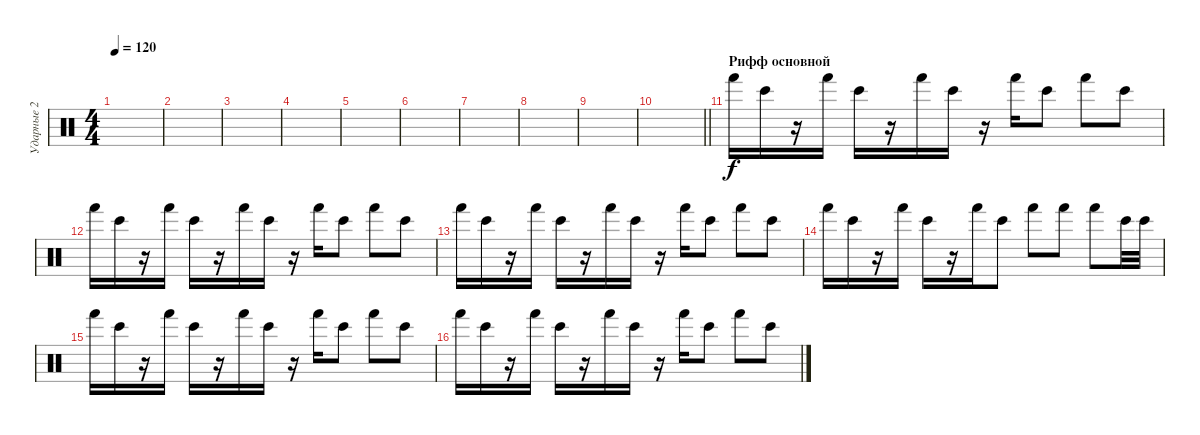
\track ("Ударные 2" "Ударные 2") {instrument percussion}
\staff {score}
\articulation defaults
\ts (4 4)
\tempo 120
\clef neutral
\ks c
|
|
|
|
|
|
|
|
|
\barLineRight lightlight
|
\section ("" "Рифф основной")
"Hand (hit)".16 "Bongo High (hit)".16 r.16 "Hand (hit)".16 "Bongo High (hit)".16 r.16 "Hand (hit)".16 "Bongo High (hit)".16 r.16 "Hand (hit)".16 "Bongo High (hit)".8 "Hand (hit)".8 "Bongo High (hit)".8 |
"Hand (hit)".16 "Bongo High (hit)".16 r.16 "Hand (hit)".16 "Bongo High (hit)".16 r.16 "Hand (hit)".16 "Bongo High (hit)".16 r.16 "Hand (hit)".16 "Bongo High (hit)".8 "Hand (hit)".8 "Bongo High (hit)".8 |
"Hand (hit)".16 "Bongo High (hit)".16 r.16 "Hand (hit)".16 "Bongo High (hit)".16 r.16 "Hand (hit)".16 "Bongo High (hit)".16 r.16 "Hand (hit)".16 "Bongo High (hit)".8 "Hand (hit)".8 "Bongo High (hit)".8 |
"Hand (hit)".16 "Bongo High (hit)".16 r.16 "Hand (hit)".16 "Bongo High (hit)".16 r.16 "Hand (hit)".16 "Bongo High (hit)".8 "Hand (hit)".8 "Hand (hit)".8 "Hand (hit)".8 "Bongo High (hit)".32 "Bongo High (hit)".32 |
"Hand (hit)".16 "Bongo High (hit)".16 r.16 "Hand (hit)".16 "Bongo High (hit)".16 r.16 "Hand (hit)".16 "Bongo High (hit)".16 r.16 "Hand (hit)".16 "Bongo High (hit)".8 "Hand (hit)".8 "Bongo High (hit)".8 |
"Hand (hit)".16 "Bongo High (hit)".16 r.16 "Hand (hit)".16 "Bongo High (hit)".16 r.16 "Hand (hit)".16 "Bongo High (hit)".16 r.16 "Hand (hit)".16 "Bongo High (hit)".8 "Hand (hit)".8 "Bongo High (hit)".8
